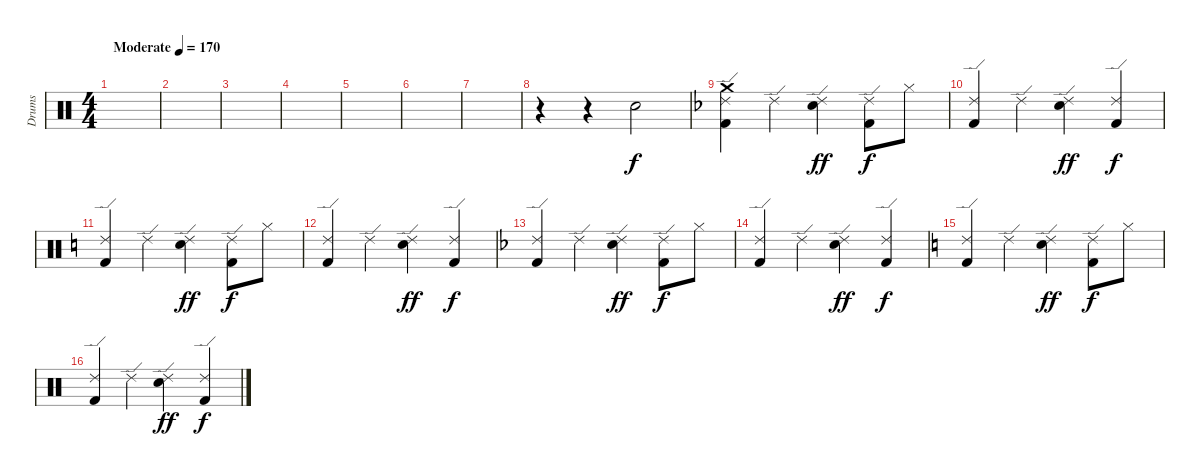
\track ("Drums" "Drums") {instrument percussion}
\staff {score}
\articulation defaults
\ts (4 4)
\tempo (170 "Moderate")
\clef neutral
\ks c
|
|
|
|
|
|
|
r.4 r.4 "Snare (hit) 2".2 |
\ks dminor
("Crash medium (hit)" "Ride (edge) 2" "Kick (hit) 2").4 "Ride (edge) 2".4 ("Ride (edge) 2" "Snare (hit) 2").4{dy ff} ("Ride (edge) 2" "Kick (hit) 2").8{dy f} "Hi-Hat (closed)".8 |
("Ride (edge) 2" "Kick (hit) 2").4 "Ride (edge) 2".4 ("Ride (edge) 2" "Snare (hit) 2").4{dy ff} ("Ride (edge) 2" "Kick (hit) 2").4{dy f} |
\ks c
("Ride (edge) 2" "Kick (hit) 2").4 "Ride (edge) 2".4 ("Ride (edge) 2" "Snare (hit) 2").4{dy ff} ("Ride (edge) 2" "Kick (hit) 2").8{dy f} "Hi-Hat (closed)".8 |
("Ride (edge) 2" "Kick (hit) 2").4 "Ride (edge) 2".4 ("Ride (edge) 2" "Snare (hit) 2").4{dy ff} ("Ride (edge) 2" "Kick (hit) 2").4{dy f} |
\ks dminor
("Ride (edge) 2" "Kick (hit) 2").4 "Ride (edge) 2".4 ("Ride (edge) 2" "Snare (hit) 2").4{dy ff} ("Ride (edge) 2" "Kick (hit) 2").8{dy f} "Hi-Hat (closed)".8 |
("Ride (edge) 2" "Kick (hit) 2").4 "Ride (edge) 2".4 ("Ride (edge) 2" "Snare (hit) 2").4{dy ff} ("Ride (edge) 2" "Kick (hit) 2").4{dy f} |
\ks c
("Ride (edge) 2" "Kick (hit) 2").4 "Ride (edge) 2".4 ("Ride (edge) 2" "Snare (hit) 2").4{dy ff} ("Ride (edge) 2" "Kick (hit) 2").8{dy f} "Hi-Hat (closed)".8 |
("Ride (edge) 2" "Kick (hit) 2").4 "Ride (edge) 2".4 ("Ride (edge) 2" "Snare (hit) 2").4{dy ff} ("Ride (edge) 2" "Kick (hit) 2").4{dy f}
